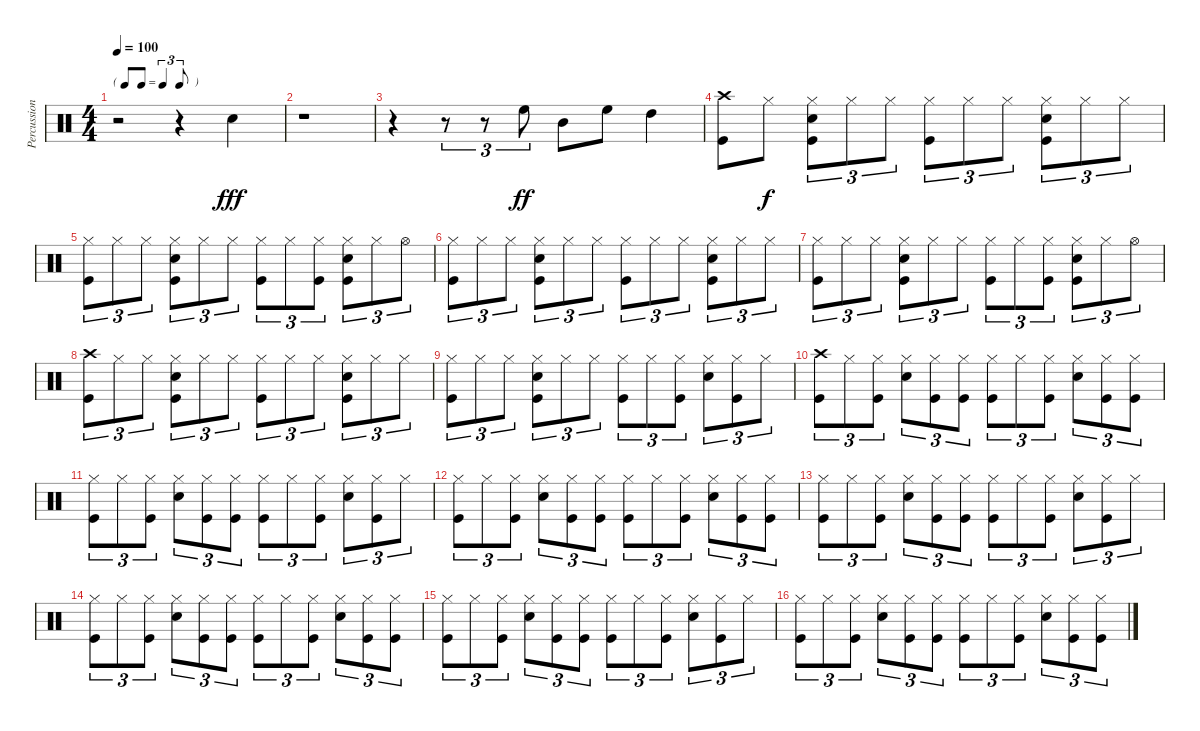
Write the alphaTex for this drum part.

\track ("Percussions" "Percussion") {instrument percussion}
\staff {score}
\articulation defaults
\ts (4 4)
\tf triplet8th
\tempo 100
\clef neutral
\ks c
r.2{dy fff} r.4 "Electric Snare (hit)".4 |
r.1 |
r.4 r.8{tu (3 2)} r.8{tu (3 2)} "High Floor Tom (hit)".8{tu (3 2) dy ff} "Mid Tom (hit)".8 "High Floor Tom (hit)".8 "High Tom (hit)".4 |
("Crash high (hit)" "Kick (hit)").8 "Hi-Hat (closed)".8{dy f} ("Hi-Hat (closed)" "Snare (hit) 2" "Kick (hit)").8{tu (3 2)} "Hi-Hat (closed)".8{tu (3 2)} "Hi-Hat (closed)".8{tu (3 2)} ("Hi-Hat (closed)" "Kick (hit)").8{tu (3 2)} "Hi-Hat (closed)".8{tu (3 2)} "Hi-Hat (closed)".8{tu (3 2)} ("Hi-Hat (closed)" "Snare (hit) 2" "Kick (hit)").8{tu (3 2)} "Hi-Hat (closed)".8{tu (3 2)} "Hi-Hat (closed)".8{tu (3 2)} |
("Hi-Hat (closed)" "Kick (hit)").8{tu (3 2)} "Hi-Hat (closed)".8{tu (3 2)} "Hi-Hat (closed)".8{tu (3 2)} ("Hi-Hat (closed)" "Snare (hit) 2" "Kick (hit)").8{tu (3 2)} "Hi-Hat (closed)".8{tu (3 2)} "Hi-Hat (closed)".8{tu (3 2)} ("Hi-Hat (closed)" "Kick (hit)").8{tu (3 2)} "Hi-Hat (closed)".8{tu (3 2)} ("Hi-Hat (closed)" "Kick (hit)").8{tu (3 2)} ("Hi-Hat (closed)" "Snare (hit) 2" "Kick (hit)").8{tu (3 2)} "Hi-Hat (closed)".8{tu (3 2)} "Hi-Hat (open)".8{tu (3 2)} |
("Hi-Hat (closed)" "Kick (hit)").8{tu (3 2)} "Hi-Hat (closed)".8{tu (3 2)} "Hi-Hat (closed)".8{tu (3 2)} ("Hi-Hat (closed)" "Snare (hit) 2" "Kick (hit)").8{tu (3 2)} "Hi-Hat (closed)".8{tu (3 2)} "Hi-Hat (closed)".8{tu (3 2)} ("Hi-Hat (closed)" "Kick (hit)").8{tu (3 2)} "Hi-Hat (closed)".8{tu (3 2)} "Hi-Hat (closed)".8{tu (3 2)} ("Hi-Hat (closed)" "Snare (hit) 2" "Kick (hit)").8{tu (3 2)} "Hi-Hat (closed)".8{tu (3 2)} "Hi-Hat (closed)".8{tu (3 2)} |
("Hi-Hat (closed)" "Kick (hit)").8{tu (3 2)} "Hi-Hat (closed)".8{tu (3 2)} "Hi-Hat (closed)".8{tu (3 2)} ("Hi-Hat (closed)" "Snare (hit) 2" "Kick (hit)").8{tu (3 2)} "Hi-Hat (closed)".8{tu (3 2)} "Hi-Hat (closed)".8{tu (3 2)} ("Hi-Hat (closed)" "Kick (hit)").8{tu (3 2)} "Hi-Hat (closed)".8{tu (3 2)} ("Hi-Hat (closed)" "Kick (hit)").8{tu (3 2)} ("Hi-Hat (closed)" "Snare (hit) 2" "Kick (hit)").8{tu (3 2)} "Hi-Hat (closed)".8{tu (3 2)} "Hi-Hat (open)".8{tu (3 2)} |
("Crash high (hit)" "Kick (hit)").8{tu (3 2)} "Hi-Hat (closed)".8{tu (3 2)} "Hi-Hat (closed)".8{tu (3 2)} ("Hi-Hat (closed)" "Snare (hit) 2" "Kick (hit)").8{tu (3 2)} "Hi-Hat (closed)".8{tu (3 2)} "Hi-Hat (closed)".8{tu (3 2)} ("Hi-Hat (closed)" "Kick (hit)").8{tu (3 2)} "Hi-Hat (closed)".8{tu (3 2)} "Hi-Hat (closed)".8{tu (3 2)} ("Hi-Hat (closed)" "Snare (hit) 2" "Kick (hit)").8{tu (3 2)} "Hi-Hat (closed)".8{tu (3 2)} "Hi-Hat (closed)".8{tu (3 2)} |
("Hi-Hat (closed)" "Kick (hit)").8{tu (3 2)} "Hi-Hat (closed)".8{tu (3 2)} "Hi-Hat (closed)".8{tu (3 2)} ("Hi-Hat (closed)" "Snare (hit) 2" "Kick (hit)").8{tu (3 2)} "Hi-Hat (closed)".8{tu (3 2)} "Hi-Hat (closed)".8{tu (3 2)} ("Hi-Hat (closed)" "Kick (hit)").8{tu (3 2)} "Hi-Hat (closed)".8{tu (3 2)} ("Hi-Hat (closed)" "Kick (hit)").8{tu (3 2)} ("Hi-Hat (closed)" "Snare (hit) 2").8{tu (3 2)} ("Hi-Hat (closed)" "Kick (hit)").8{tu (3 2)} "Hi-Hat (closed)".8{tu (3 2)} |
("Crash high (hit)" "Kick (hit)").8{tu (3 2)} "Hi-Hat (closed)".8{tu (3 2)} ("Hi-Hat (closed)" "Kick (hit)").8{tu (3 2)} ("Hi-Hat (closed)" "Snare (hit) 2").8{tu (3 2)} ("Hi-Hat (closed)" "Kick (hit)").8{tu (3 2)} ("Hi-Hat (closed)" "Kick (hit)").8{tu (3 2)} ("Hi-Hat (closed)" "Kick (hit)").8{tu (3 2)} "Hi-Hat (closed)".8{tu (3 2)} ("Hi-Hat (closed)" "Kick (hit)").8{tu (3 2)} ("Hi-Hat (closed)" "Snare (hit) 2").8{tu (3 2)} ("Hi-Hat (closed)" "Kick (hit)").8{tu (3 2)} ("Hi-Hat (closed)" "Kick (hit)").8{tu (3 2)} |
("Hi-Hat (closed)" "Kick (hit)").8{tu (3 2)} "Hi-Hat (closed)".8{tu (3 2)} ("Hi-Hat (closed)" "Kick (hit)").8{tu (3 2)} ("Hi-Hat (closed)" "Snare (hit) 2").8{tu (3 2)} ("Hi-Hat (closed)" "Kick (hit)").8{tu (3 2)} ("Hi-Hat (closed)" "Kick (hit)").8{tu (3 2)} ("Hi-Hat (closed)" "Kick (hit)").8{tu (3 2)} "Hi-Hat (closed)".8{tu (3 2)} ("Hi-Hat (closed)" "Kick (hit)").8{tu (3 2)} ("Hi-Hat (closed)" "Snare (hit) 2").8{tu (3 2)} ("Hi-Hat (closed)" "Kick (hit)").8{tu (3 2)} "Hi-Hat (closed)".8{tu (3 2)} |
("Hi-Hat (closed)" "Kick (hit)").8{tu (3 2)} "Hi-Hat (closed)".8{tu (3 2)} ("Hi-Hat (closed)" "Kick (hit)").8{tu (3 2)} ("Hi-Hat (closed)" "Snare (hit) 2").8{tu (3 2)} ("Hi-Hat (closed)" "Kick (hit)").8{tu (3 2)} ("Hi-Hat (closed)" "Kick (hit)").8{tu (3 2)} ("Hi-Hat (closed)" "Kick (hit)").8{tu (3 2)} "Hi-Hat (closed)".8{tu (3 2)} ("Hi-Hat (closed)" "Kick (hit)").8{tu (3 2)} ("Hi-Hat (closed)" "Snare (hit) 2").8{tu (3 2)} ("Hi-Hat (closed)" "Kick (hit)").8{tu (3 2)} ("Hi-Hat (closed)" "Kick (hit)").8{tu (3 2)} |
("Hi-Hat (closed)" "Kick (hit)").8{tu (3 2)} "Hi-Hat (closed)".8{tu (3 2)} ("Hi-Hat (closed)" "Kick (hit)").8{tu (3 2)} ("Hi-Hat (closed)" "Snare (hit) 2").8{tu (3 2)} ("Hi-Hat (closed)" "Kick (hit)").8{tu (3 2)} ("Hi-Hat (closed)" "Kick (hit)").8{tu (3 2)} ("Hi-Hat (closed)" "Kick (hit)").8{tu (3 2)} "Hi-Hat (closed)".8{tu (3 2)} ("Hi-Hat (closed)" "Kick (hit)").8{tu (3 2)} ("Hi-Hat (closed)" "Snare (hit) 2").8{tu (3 2)} ("Hi-Hat (closed)" "Kick (hit)").8{tu (3 2)} "Hi-Hat (closed)".8{tu (3 2)} |
("Hi-Hat (closed)" "Kick (hit)").8{tu (3 2)} "Hi-Hat (closed)".8{tu (3 2)} ("Hi-Hat (closed)" "Kick (hit)").8{tu (3 2)} ("Hi-Hat (closed)" "Snare (hit) 2").8{tu (3 2)} ("Hi-Hat (closed)" "Kick (hit)").8{tu (3 2)} ("Hi-Hat (closed)" "Kick (hit)").8{tu (3 2)} ("Hi-Hat (closed)" "Kick (hit)").8{tu (3 2)} "Hi-Hat (closed)".8{tu (3 2)} ("Hi-Hat (closed)" "Kick (hit)").8{tu (3 2)} ("Hi-Hat (closed)" "Snare (hit) 2").8{tu (3 2)} ("Hi-Hat (closed)" "Kick (hit)").8{tu (3 2)} ("Hi-Hat (closed)" "Kick (hit)").8{tu (3 2)} |
("Hi-Hat (closed)" "Kick (hit)").8{tu (3 2)} "Hi-Hat (closed)".8{tu (3 2)} ("Hi-Hat (closed)" "Kick (hit)").8{tu (3 2)} ("Hi-Hat (closed)" "Snare (hit) 2").8{tu (3 2)} ("Hi-Hat (closed)" "Kick (hit)").8{tu (3 2)} ("Hi-Hat (closed)" "Kick (hit)").8{tu (3 2)} ("Hi-Hat (closed)" "Kick (hit)").8{tu (3 2)} "Hi-Hat (closed)".8{tu (3 2)} ("Hi-Hat (closed)" "Kick (hit)").8{tu (3 2)} ("Hi-Hat (closed)" "Snare (hit) 2").8{tu (3 2)} ("Hi-Hat (closed)" "Kick (hit)").8{tu (3 2)} "Hi-Hat (closed)".8{tu (3 2)} |
("Hi-Hat (closed)" "Kick (hit)").8{tu (3 2)} "Hi-Hat (closed)".8{tu (3 2)} ("Hi-Hat (closed)" "Kick (hit)").8{tu (3 2)} ("Hi-Hat (closed)" "Snare (hit) 2").8{tu (3 2)} ("Hi-Hat (closed)" "Kick (hit)").8{tu (3 2)} ("Hi-Hat (closed)" "Kick (hit)").8{tu (3 2)} ("Hi-Hat (closed)" "Kick (hit)").8{tu (3 2)} "Hi-Hat (closed)".8{tu (3 2)} ("Hi-Hat (closed)" "Kick (hit)").8{tu (3 2)} ("Hi-Hat (closed)" "Snare (hit) 2").8{tu (3 2)} ("Hi-Hat (closed)" "Kick (hit)").8{tu (3 2)} ("Hi-Hat (closed)" "Kick (hit)").8{tu (3 2)}
